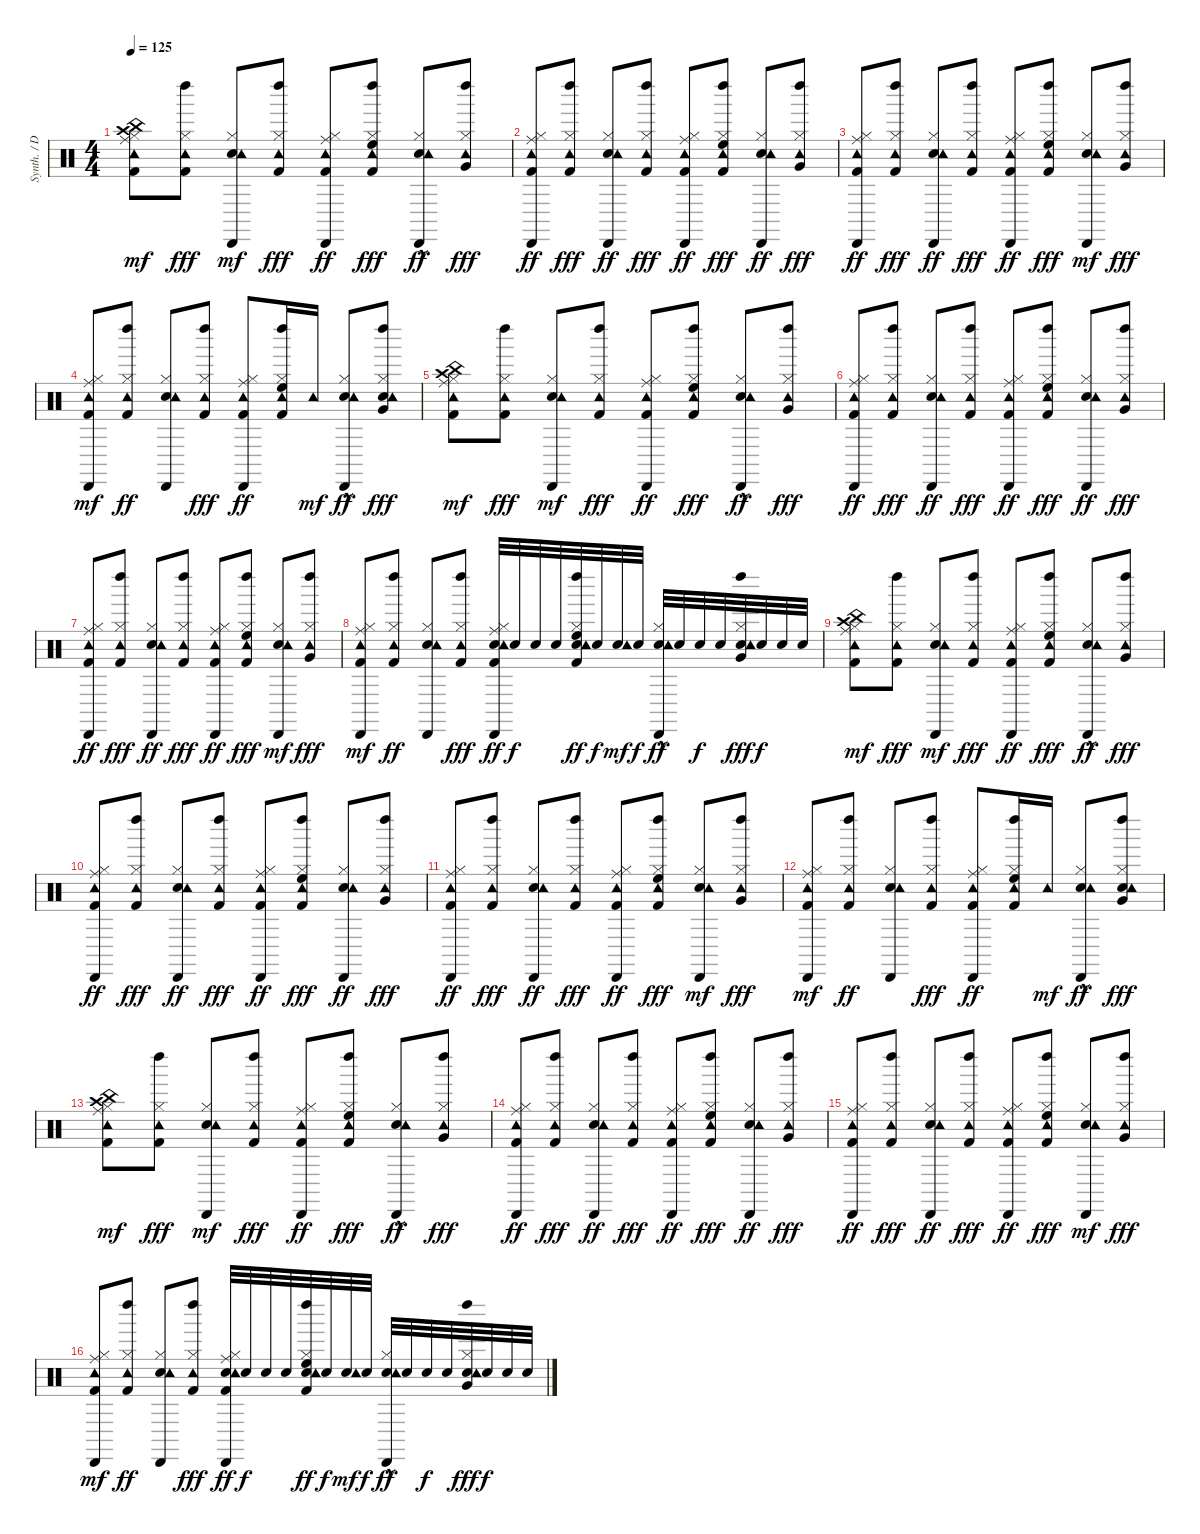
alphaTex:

\track ("Synth. / Drums" "Synth. / D") {instrument percussion}
\staff {score}
\articulation defaults
\ts (4 4)
\tempo 125
\clef neutral
\ks c
("Kick (hit) 2" "Hi-Hat (closed)" "Crash high (hit)" "Ride (middle)" "China (hit)" "Tambourine (hit)").8{dy mf} ("Kick (hit) 2" "Hi-Hat (closed)" "Tambourine (hit)" "Left Maraca (hit)").8{dy fff} ("Electric Snare (hit)" "Hi-Hat (closed)" "Tambourine (hit)" "Cabasa (hit)").8{dy mf} ("Kick (hit) 2" "Hi-Hat (closed)" "Tambourine (hit)" "Left Maraca (hit)").8{dy fff} ("Kick (hit) 2" "Hi-Hat (closed)" "Ride (middle)" "Tambourine (hit)" "Cabasa (hit)").8{dy ff} ("Kick (hit) 2" "Hi-Hat (closed)" "High Floor Tom (hit)" "Tambourine (hit)" "Left Maraca (hit)").8{dy fff} ("Electric Snare (hit)"{hac} "Hi-Hat (closed)" "Tambourine (hit)" "Cabasa (hit)").8{dy ff} ("Hi-Hat (closed)" "Very Low Tom (hit)" "Tambourine (hit)" "Left Maraca (hit)").8{dy fff} |
("Kick (hit) 2" "Hi-Hat (closed)" "Ride (middle)" "Tambourine (hit)" "Cabasa (hit)").8{dy ff} ("Kick (hit) 2" "Hi-Hat (closed)" "Tambourine (hit)" "Left Maraca (hit)").8{dy fff} ("Electric Snare (hit)" "Hi-Hat (closed)" "Tambourine (hit)" "Cabasa (hit)").8{dy ff} ("Kick (hit) 2" "Hi-Hat (closed)" "Tambourine (hit)" "Left Maraca (hit)").8{dy fff} ("Kick (hit) 2" "Hi-Hat (closed)" "Ride (middle)" "Tambourine (hit)" "Cabasa (hit)").8{dy ff} ("Kick (hit) 2" "Hi-Hat (closed)" "High Floor Tom (hit)" "Tambourine (hit)" "Left Maraca (hit)").8{dy fff} ("Electric Snare (hit)" "Hi-Hat (closed)" "Tambourine (hit)" "Cabasa (hit)").8{dy ff} ("Hi-Hat (closed)" "Very Low Tom (hit)" "Tambourine (hit)" "Left Maraca (hit)").8{dy fff} |
("Kick (hit) 2" "Hi-Hat (closed)" "Ride (middle)" "Tambourine (hit)" "Cabasa (hit)").8{dy ff} ("Kick (hit) 2" "Hi-Hat (closed)" "Tambourine (hit)" "Left Maraca (hit)").8{dy fff} ("Electric Snare (hit)" "Hi-Hat (closed)" "Tambourine (hit)" "Cabasa (hit)").8{dy ff} ("Kick (hit) 2" "Hi-Hat (closed)" "Tambourine (hit)" "Left Maraca (hit)").8{dy fff} ("Kick (hit) 2" "Hi-Hat (closed)" "Ride (middle)" "Tambourine (hit)" "Cabasa (hit)").8{dy ff} ("Kick (hit) 2" "Hi-Hat (closed)" "High Floor Tom (hit)" "Tambourine (hit)" "Left Maraca (hit)").8{dy fff} ("Electric Snare (hit)" "Hi-Hat (closed)" "Tambourine (hit)" "Cabasa (hit)").8{dy mf} ("Hi-Hat (closed)" "Very Low Tom (hit)" "Tambourine (hit)" "Left Maraca (hit)").8{dy fff} |
("Kick (hit) 2" "Hi-Hat (closed)" "Ride (middle)" "Tambourine (hit)" "Cabasa (hit)").8{dy mf} ("Kick (hit) 2" "Hi-Hat (closed)" "Tambourine (hit)" "Left Maraca (hit)").8{dy ff} ("Electric Snare (hit)" "Hi-Hat (closed)" "Tambourine (hit)" "Cabasa (hit)").8 ("Kick (hit) 2" "Hi-Hat (closed)" "Tambourine (hit)" "Left Maraca (hit)").8{dy fff} ("Kick (hit) 2" "Hi-Hat (closed)" "Ride (middle)" "Tambourine (hit)" "Cabasa (hit)").8{dy ff} ("Kick (hit) 2" "Hi-Hat (closed)" "High Floor Tom (hit)" "Tambourine (hit)" "Left Maraca (hit)").16 "Tambourine (hit)".16{dy mf} ("Electric Snare (hit)" "Hi-Hat (closed)" "Tambourine (hit)" "Cabasa (hit)"{hac}).8{dy ff} ("Electric Snare (hit)" "Hi-Hat (closed)" "Very Low Tom (hit)" "Tambourine (hit)" "Left Maraca (hit)").8{dy fff} |
("Kick (hit) 2" "Hi-Hat (closed)" "Crash high (hit)" "Ride (middle)" "China (hit)" "Tambourine (hit)").8{dy mf} ("Kick (hit) 2" "Hi-Hat (closed)" "Tambourine (hit)" "Left Maraca (hit)").8{dy fff} ("Electric Snare (hit)" "Hi-Hat (closed)" "Tambourine (hit)" "Cabasa (hit)").8{dy mf} ("Kick (hit) 2" "Hi-Hat (closed)" "Tambourine (hit)" "Left Maraca (hit)").8{dy fff} ("Kick (hit) 2" "Hi-Hat (closed)" "Ride (middle)" "Tambourine (hit)" "Cabasa (hit)").8{dy ff} ("Kick (hit) 2" "Hi-Hat (closed)" "High Floor Tom (hit)" "Tambourine (hit)" "Left Maraca (hit)").8{dy fff} ("Electric Snare (hit)"{hac} "Hi-Hat (closed)" "Tambourine (hit)" "Cabasa (hit)").8{dy ff} ("Hi-Hat (closed)" "Very Low Tom (hit)" "Tambourine (hit)" "Left Maraca (hit)").8{dy fff} |
("Kick (hit) 2" "Hi-Hat (closed)" "Ride (middle)" "Tambourine (hit)" "Cabasa (hit)").8{dy ff} ("Kick (hit) 2" "Hi-Hat (closed)" "Tambourine (hit)" "Left Maraca (hit)").8{dy fff} ("Electric Snare (hit)" "Hi-Hat (closed)" "Tambourine (hit)" "Cabasa (hit)").8{dy ff} ("Kick (hit) 2" "Hi-Hat (closed)" "Tambourine (hit)" "Left Maraca (hit)").8{dy fff} ("Kick (hit) 2" "Hi-Hat (closed)" "Ride (middle)" "Tambourine (hit)" "Cabasa (hit)").8{dy ff} ("Kick (hit) 2" "Hi-Hat (closed)" "High Floor Tom (hit)" "Tambourine (hit)" "Left Maraca (hit)").8{dy fff} ("Electric Snare (hit)" "Hi-Hat (closed)" "Tambourine (hit)" "Cabasa (hit)").8{dy ff} ("Hi-Hat (closed)" "Very Low Tom (hit)" "Tambourine (hit)" "Left Maraca (hit)").8{dy fff} |
("Kick (hit) 2" "Hi-Hat (closed)" "Ride (middle)" "Tambourine (hit)" "Cabasa (hit)").8{dy ff} ("Kick (hit) 2" "Hi-Hat (closed)" "Tambourine (hit)" "Left Maraca (hit)").8{dy fff} ("Electric Snare (hit)" "Hi-Hat (closed)" "Tambourine (hit)" "Cabasa (hit)").8{dy ff} ("Kick (hit) 2" "Hi-Hat (closed)" "Tambourine (hit)" "Left Maraca (hit)").8{dy fff} ("Kick (hit) 2" "Hi-Hat (closed)" "Ride (middle)" "Tambourine (hit)" "Cabasa (hit)").8{dy ff} ("Kick (hit) 2" "Hi-Hat (closed)" "High Floor Tom (hit)" "Tambourine (hit)" "Left Maraca (hit)").8{dy fff} ("Electric Snare (hit)" "Hi-Hat (closed)" "Tambourine (hit)" "Cabasa (hit)").8{dy mf} ("Hi-Hat (closed)" "Very Low Tom (hit)" "Tambourine (hit)" "Left Maraca (hit)").8{dy fff} |
("Kick (hit) 2" "Hi-Hat (closed)" "Ride (middle)" "Tambourine (hit)" "Cabasa (hit)").8{dy mf} ("Kick (hit) 2" "Hi-Hat (closed)" "Tambourine (hit)" "Left Maraca (hit)").8{dy ff} ("Electric Snare (hit)" "Hi-Hat (closed)" "Tambourine (hit)" "Cabasa (hit)").8 ("Kick (hit) 2" "Hi-Hat (closed)" "Tambourine (hit)" "Left Maraca (hit)").8{dy fff} ("Kick (hit) 2" "Electric Snare (hit)" "Hi-Hat (closed)" "Ride (middle)" "Tambourine (hit)" "Cabasa (hit)").32{dy ff} "Electric Snare (hit)".32{dy f} "Electric Snare (hit)".32 "Electric Snare (hit)".32 ("Kick (hit) 2" "Electric Snare (hit)" "Hi-Hat (closed)" "High Floor Tom (hit)" "Tambourine (hit)" "Left Maraca (hit)").32{dy ff} "Electric Snare (hit)".32{dy f} ("Electric Snare (hit)" "Tambourine (hit)").32{dy mf} "Electric Snare (hit)".32{dy f} ("Electric Snare (hit)" "Hi-Hat (closed)" "Tambourine (hit)" "Cabasa (hit)"{hac}).32{dy ff} "Electric Snare (hit)".32 "Electric Snare (hit)".32{dy f} "Electric Snare (hit)".32 ("Electric Snare (hit)" "Hi-Hat (closed)" "Very Low Tom (hit)" "Tambourine (hit)" "Left Maraca (hit)").32{dy fff} "Electric Snare (hit)".32{dy f} "Electric Snare (hit)".32 "Electric Snare (hit)".32 |
("Kick (hit) 2" "Hi-Hat (closed)" "Crash high (hit)" "Ride (middle)" "China (hit)" "Tambourine (hit)").8{dy mf} ("Kick (hit) 2" "Hi-Hat (closed)" "Tambourine (hit)" "Left Maraca (hit)").8{dy fff} ("Electric Snare (hit)" "Hi-Hat (closed)" "Tambourine (hit)" "Cabasa (hit)").8{dy mf} ("Kick (hit) 2" "Hi-Hat (closed)" "Tambourine (hit)" "Left Maraca (hit)").8{dy fff} ("Kick (hit) 2" "Hi-Hat (closed)" "Ride (middle)" "Tambourine (hit)" "Cabasa (hit)").8{dy ff} ("Kick (hit) 2" "Hi-Hat (closed)" "High Floor Tom (hit)" "Tambourine (hit)" "Left Maraca (hit)").8{dy fff} ("Electric Snare (hit)"{hac} "Hi-Hat (closed)" "Tambourine (hit)" "Cabasa (hit)").8{dy ff} ("Hi-Hat (closed)" "Very Low Tom (hit)" "Tambourine (hit)" "Left Maraca (hit)").8{dy fff} |
("Kick (hit) 2" "Hi-Hat (closed)" "Ride (middle)" "Tambourine (hit)" "Cabasa (hit)").8{dy ff} ("Kick (hit) 2" "Hi-Hat (closed)" "Tambourine (hit)" "Left Maraca (hit)").8{dy fff} ("Electric Snare (hit)" "Hi-Hat (closed)" "Tambourine (hit)" "Cabasa (hit)").8{dy ff} ("Kick (hit) 2" "Hi-Hat (closed)" "Tambourine (hit)" "Left Maraca (hit)").8{dy fff} ("Kick (hit) 2" "Hi-Hat (closed)" "Ride (middle)" "Tambourine (hit)" "Cabasa (hit)").8{dy ff} ("Kick (hit) 2" "Hi-Hat (closed)" "High Floor Tom (hit)" "Tambourine (hit)" "Left Maraca (hit)").8{dy fff} ("Electric Snare (hit)" "Hi-Hat (closed)" "Tambourine (hit)" "Cabasa (hit)").8{dy ff} ("Hi-Hat (closed)" "Very Low Tom (hit)" "Tambourine (hit)" "Left Maraca (hit)").8{dy fff} |
("Kick (hit) 2" "Hi-Hat (closed)" "Ride (middle)" "Tambourine (hit)" "Cabasa (hit)").8{dy ff} ("Kick (hit) 2" "Hi-Hat (closed)" "Tambourine (hit)" "Left Maraca (hit)").8{dy fff} ("Electric Snare (hit)" "Hi-Hat (closed)" "Tambourine (hit)" "Cabasa (hit)").8{dy ff} ("Kick (hit) 2" "Hi-Hat (closed)" "Tambourine (hit)" "Left Maraca (hit)").8{dy fff} ("Kick (hit) 2" "Hi-Hat (closed)" "Ride (middle)" "Tambourine (hit)" "Cabasa (hit)").8{dy ff} ("Kick (hit) 2" "Hi-Hat (closed)" "High Floor Tom (hit)" "Tambourine (hit)" "Left Maraca (hit)").8{dy fff} ("Electric Snare (hit)" "Hi-Hat (closed)" "Tambourine (hit)" "Cabasa (hit)").8{dy mf} ("Hi-Hat (closed)" "Very Low Tom (hit)" "Tambourine (hit)" "Left Maraca (hit)").8{dy fff} |
("Kick (hit) 2" "Hi-Hat (closed)" "Ride (middle)" "Tambourine (hit)" "Cabasa (hit)").8{dy mf} ("Kick (hit) 2" "Hi-Hat (closed)" "Tambourine (hit)" "Left Maraca (hit)").8{dy ff} ("Electric Snare (hit)" "Hi-Hat (closed)" "Tambourine (hit)" "Cabasa (hit)").8 ("Kick (hit) 2" "Hi-Hat (closed)" "Tambourine (hit)" "Left Maraca (hit)").8{dy fff} ("Kick (hit) 2" "Hi-Hat (closed)" "Ride (middle)" "Tambourine (hit)" "Cabasa (hit)").8{dy ff} ("Kick (hit) 2" "Hi-Hat (closed)" "High Floor Tom (hit)" "Tambourine (hit)" "Left Maraca (hit)").16 "Tambourine (hit)".16{dy mf} ("Electric Snare (hit)" "Hi-Hat (closed)" "Tambourine (hit)" "Cabasa (hit)"{hac}).8{dy ff} ("Electric Snare (hit)" "Hi-Hat (closed)" "Very Low Tom (hit)" "Tambourine (hit)" "Left Maraca (hit)").8{dy fff} |
("Kick (hit) 2" "Hi-Hat (closed)" "Crash high (hit)" "Ride (middle)" "China (hit)" "Tambourine (hit)").8{dy mf} ("Kick (hit) 2" "Hi-Hat (closed)" "Tambourine (hit)" "Left Maraca (hit)").8{dy fff} ("Electric Snare (hit)" "Hi-Hat (closed)" "Tambourine (hit)" "Cabasa (hit)").8{dy mf} ("Kick (hit) 2" "Hi-Hat (closed)" "Tambourine (hit)" "Left Maraca (hit)").8{dy fff} ("Kick (hit) 2" "Hi-Hat (closed)" "Ride (middle)" "Tambourine (hit)" "Cabasa (hit)").8{dy ff} ("Kick (hit) 2" "Hi-Hat (closed)" "High Floor Tom (hit)" "Tambourine (hit)" "Left Maraca (hit)").8{dy fff} ("Electric Snare (hit)"{hac} "Hi-Hat (closed)" "Tambourine (hit)" "Cabasa (hit)").8{dy ff} ("Hi-Hat (closed)" "Very Low Tom (hit)" "Tambourine (hit)" "Left Maraca (hit)").8{dy fff} |
("Kick (hit) 2" "Hi-Hat (closed)" "Ride (middle)" "Tambourine (hit)" "Cabasa (hit)").8{dy ff} ("Kick (hit) 2" "Hi-Hat (closed)" "Tambourine (hit)" "Left Maraca (hit)").8{dy fff} ("Electric Snare (hit)" "Hi-Hat (closed)" "Tambourine (hit)" "Cabasa (hit)").8{dy ff} ("Kick (hit) 2" "Hi-Hat (closed)" "Tambourine (hit)" "Left Maraca (hit)").8{dy fff} ("Kick (hit) 2" "Hi-Hat (closed)" "Ride (middle)" "Tambourine (hit)" "Cabasa (hit)").8{dy ff} ("Kick (hit) 2" "Hi-Hat (closed)" "High Floor Tom (hit)" "Tambourine (hit)" "Left Maraca (hit)").8{dy fff} ("Electric Snare (hit)" "Hi-Hat (closed)" "Tambourine (hit)" "Cabasa (hit)").8{dy ff} ("Hi-Hat (closed)" "Very Low Tom (hit)" "Tambourine (hit)" "Left Maraca (hit)").8{dy fff} |
("Kick (hit) 2" "Hi-Hat (closed)" "Ride (middle)" "Tambourine (hit)" "Cabasa (hit)").8{dy ff} ("Kick (hit) 2" "Hi-Hat (closed)" "Tambourine (hit)" "Left Maraca (hit)").8{dy fff} ("Electric Snare (hit)" "Hi-Hat (closed)" "Tambourine (hit)" "Cabasa (hit)").8{dy ff} ("Kick (hit) 2" "Hi-Hat (closed)" "Tambourine (hit)" "Left Maraca (hit)").8{dy fff} ("Kick (hit) 2" "Hi-Hat (closed)" "Ride (middle)" "Tambourine (hit)" "Cabasa (hit)").8{dy ff} ("Kick (hit) 2" "Hi-Hat (closed)" "High Floor Tom (hit)" "Tambourine (hit)" "Left Maraca (hit)").8{dy fff} ("Electric Snare (hit)" "Hi-Hat (closed)" "Tambourine (hit)" "Cabasa (hit)").8{dy mf} ("Hi-Hat (closed)" "Very Low Tom (hit)" "Tambourine (hit)" "Left Maraca (hit)").8{dy fff} |
("Kick (hit) 2" "Hi-Hat (closed)" "Ride (middle)" "Tambourine (hit)" "Cabasa (hit)").8{dy mf} ("Kick (hit) 2" "Hi-Hat (closed)" "Tambourine (hit)" "Left Maraca (hit)").8{dy ff} ("Electric Snare (hit)" "Hi-Hat (closed)" "Tambourine (hit)" "Cabasa (hit)").8 ("Kick (hit) 2" "Hi-Hat (closed)" "Tambourine (hit)" "Left Maraca (hit)").8{dy fff} ("Kick (hit) 2" "Electric Snare (hit)" "Hi-Hat (closed)" "Ride (middle)" "Tambourine (hit)" "Cabasa (hit)").32{dy ff} "Electric Snare (hit)".32{dy f} "Electric Snare (hit)".32 "Electric Snare (hit)".32 ("Kick (hit) 2" "Electric Snare (hit)" "Hi-Hat (closed)" "High Floor Tom (hit)" "Tambourine (hit)" "Left Maraca (hit)").32{dy ff} "Electric Snare (hit)".32{dy f} ("Electric Snare (hit)" "Tambourine (hit)").32{dy mf} "Electric Snare (hit)".32{dy f} ("Electric Snare (hit)" "Hi-Hat (closed)" "Tambourine (hit)" "Cabasa (hit)"{hac}).32{dy ff} "Electric Snare (hit)".32 "Electric Snare (hit)".32{dy f} "Electric Snare (hit)".32 ("Electric Snare (hit)" "Hi-Hat (closed)" "Very Low Tom (hit)" "Tambourine (hit)" "Left Maraca (hit)").32{dy fff} "Electric Snare (hit)".32{dy f} "Electric Snare (hit)".32 "Electric Snare (hit)".32
